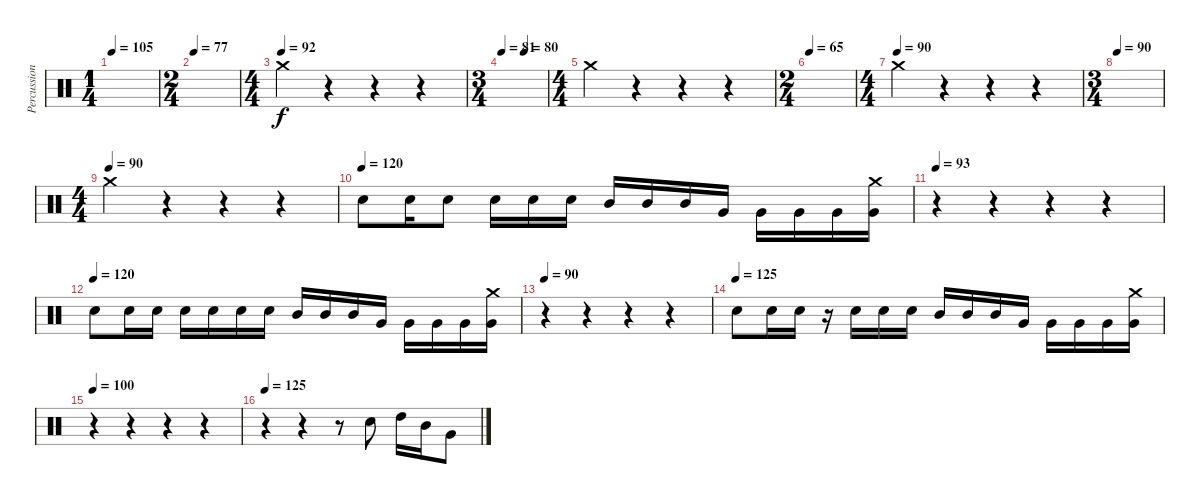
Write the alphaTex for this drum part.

\track ("Percussion" "Percussion") {instrument percussion}
\staff {score}
\articulation defaults
\ts (1 4)
\tempo 105
\tempo 145
\tempo 105
\clef neutral
\ks c
|
\ts (2 4)
\tempo 77
|
\ts (4 4)
\tempo (92)
"Crash medium (hit)".4 r.4 r.4 r.4 |
\ts (3 4)
\tempo 81
\tempo (80 0.5)
|
\ts (4 4)
"Crash medium (hit)".4 r.4 r.4 r.4 |
\ts (2 4)
\tempo 65
|
\ts (4 4)
\tempo (90)
"Crash medium (hit)".4 r.4 r.4 r.4 |
\ts (3 4)
\tempo 90
|
\ts (4 4)
\tempo (90)
"Crash medium (hit)".4 r.4 r.4 r.4 |
\tempo (120)
"Electric Snare (hit)".8 "Electric Snare (hit)".16 "Electric Snare (hit)".8 "Electric Snare (hit)".16 "Electric Snare (hit)".16 "Electric Snare (hit)".16 "Mid Tom (hit)".16 "Mid Tom (hit)".16 "Mid Tom (hit)".16 "Very Low Tom (hit)".16 "Very Low Tom (hit)".16 "Very Low Tom (hit)".16 "Very Low Tom (hit)".16 ("Very Low Tom (hit)" "Crash medium (hit)").16 |
\tempo 93
r.4 r.4 r.4 r.4 |
\tempo (120)
"Electric Snare (hit)".8 "Electric Snare (hit)".16 "Electric Snare (hit)".16 "Electric Snare (hit)".16 "Electric Snare (hit)".16 "Electric Snare (hit)".16 "Electric Snare (hit)".16 "Mid Tom (hit)".16 "Mid Tom (hit)".16 "Mid Tom (hit)".16 "Very Low Tom (hit)".16 "Very Low Tom (hit)".16 "Very Low Tom (hit)".16 "Very Low Tom (hit)".16 ("Very Low Tom (hit)" "Crash medium (hit)").16 |
\tempo 90
r.4 r.4 r.4 r.4 |
\tempo (125)
"Electric Snare (hit)".8 "Electric Snare (hit)".16 "Electric Snare (hit)".16 r.16 "Electric Snare (hit)".16 "Electric Snare (hit)".16 "Electric Snare (hit)".16 "Mid Tom (hit)".16 "Mid Tom (hit)".16 "Mid Tom (hit)".16 "Very Low Tom (hit)".16 "Very Low Tom (hit)".16 "Very Low Tom (hit)".16 "Very Low Tom (hit)".16 ("Very Low Tom (hit)" "Crash medium (hit)").16 |
\tempo 100
r.4 r.4 r.4 r.4 |
\tempo 125
r.4 r.4 r.8 "Electric Snare (hit)".8 "High Tom (hit)".16 "Mid Tom (hit)".16 "Very Low Tom (hit)".8
